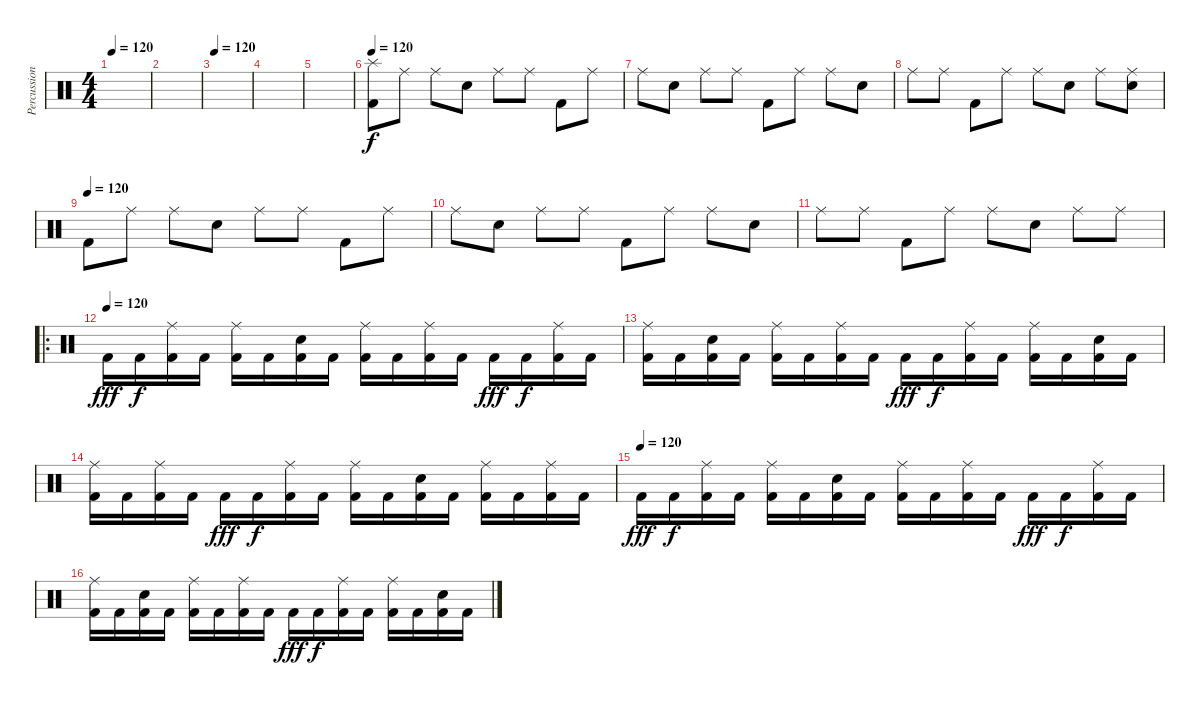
\track ("Percussions" "Percussion") {instrument percussion}
\staff {score}
\articulation defaults
\ts (4 4)
\tempo 120
\clef neutral
\ks c
|
|
\tempo 120
|
|
|
\tempo 120
("Splash (hit)" "Kick (hit) 2").8 "Ride (middle)".8 "Ride (middle)".8 "Electric Snare (hit)".8 "Ride (middle)".8 "Ride (middle)".8 "Kick (hit) 2".8 "Ride (middle)".8 |
"Ride (middle)".8 "Electric Snare (hit)".8 "Ride (middle)".8 "Ride (middle)".8 "Kick (hit) 2".8 "Ride (middle)".8 "Ride (middle)".8 "Electric Snare (hit)".8 |
"Ride (middle)".8 "Ride (middle)".8 "Kick (hit) 2".8 "Ride (middle)".8 "Ride (middle)".8 "Electric Snare (hit)".8 "Ride (middle)".8 ("Ride (middle)" "Electric Snare (hit)").8 |
\tempo (120)
"Kick (hit) 2".8 "Ride (middle)".8 "Ride (middle)".8 "Electric Snare (hit)".8 "Ride (middle)".8 "Ride (middle)".8 "Kick (hit) 2".8 "Ride (middle)".8 |
"Ride (middle)".8 "Electric Snare (hit)".8 "Ride (middle)".8 "Ride (middle)".8 "Kick (hit) 2".8 "Ride (middle)".8 "Ride (middle)".8 "Electric Snare (hit)".8 |
"Ride (middle)".8 "Ride (middle)".8 "Kick (hit) 2".8 "Ride (middle)".8 "Ride (middle)".8 "Electric Snare (hit)".8 "Ride (middle)".8 "Ride (middle)".8 |
\ro
\tempo (120)
"Kick (hit) 2".16{dy fff} "Kick (hit) 2".16{dy f} ("Ride (middle)" "Kick (hit) 2").16 "Kick (hit) 2".16 ("Ride (middle)" "Kick (hit) 2").16 "Kick (hit) 2".16 ("Electric Snare (hit)" "Kick (hit) 2").16 "Kick (hit) 2".16 ("Ride (middle)" "Kick (hit) 2").16 "Kick (hit) 2".16 ("Ride (middle)" "Kick (hit) 2").16 "Kick (hit) 2".16 "Kick (hit) 2".16{dy fff} "Kick (hit) 2".16{dy f} ("Ride (middle)" "Kick (hit) 2").16 "Kick (hit) 2".16 |
("Ride (middle)" "Kick (hit) 2").16 "Kick (hit) 2".16 ("Electric Snare (hit)" "Kick (hit) 2").16 "Kick (hit) 2".16 ("Ride (middle)" "Kick (hit) 2").16 "Kick (hit) 2".16 ("Ride (middle)" "Kick (hit) 2").16 "Kick (hit) 2".16 "Kick (hit) 2".16{dy fff} "Kick (hit) 2".16{dy f} ("Ride (middle)" "Kick (hit) 2").16 "Kick (hit) 2".16 ("Ride (middle)" "Kick (hit) 2").16 "Kick (hit) 2".16 ("Electric Snare (hit)" "Kick (hit) 2").16 "Kick (hit) 2".16 |
("Ride (middle)" "Kick (hit) 2").16 "Kick (hit) 2".16 ("Ride (middle)" "Kick (hit) 2").16 "Kick (hit) 2".16 "Kick (hit) 2".16{dy fff} "Kick (hit) 2".16{dy f} ("Ride (middle)" "Kick (hit) 2").16 "Kick (hit) 2".16 ("Ride (middle)" "Kick (hit) 2").16 "Kick (hit) 2".16 ("Electric Snare (hit)" "Kick (hit) 2").16 "Kick (hit) 2".16 ("Ride (middle)" "Kick (hit) 2").16 "Kick (hit) 2".16 ("Ride (middle)" "Kick (hit) 2").16 "Kick (hit) 2".16 |
\tempo (120)
"Kick (hit) 2".16{dy fff} "Kick (hit) 2".16{dy f} ("Ride (middle)" "Kick (hit) 2").16 "Kick (hit) 2".16 ("Ride (middle)" "Kick (hit) 2").16 "Kick (hit) 2".16 ("Electric Snare (hit)" "Kick (hit) 2").16 "Kick (hit) 2".16 ("Ride (middle)" "Kick (hit) 2").16 "Kick (hit) 2".16 ("Ride (middle)" "Kick (hit) 2").16 "Kick (hit) 2".16 "Kick (hit) 2".16{dy fff} "Kick (hit) 2".16{dy f} ("Ride (middle)" "Kick (hit) 2").16 "Kick (hit) 2".16 |
("Ride (middle)" "Kick (hit) 2").16 "Kick (hit) 2".16 ("Electric Snare (hit)" "Kick (hit) 2").16 "Kick (hit) 2".16 ("Ride (middle)" "Kick (hit) 2").16 "Kick (hit) 2".16 ("Ride (middle)" "Kick (hit) 2").16 "Kick (hit) 2".16 "Kick (hit) 2".16{dy fff} "Kick (hit) 2".16{dy f} ("Ride (middle)" "Kick (hit) 2").16 "Kick (hit) 2".16 ("Ride (middle)" "Kick (hit) 2").16 "Kick (hit) 2".16 ("Electric Snare (hit)" "Kick (hit) 2").16 "Kick (hit) 2".16
